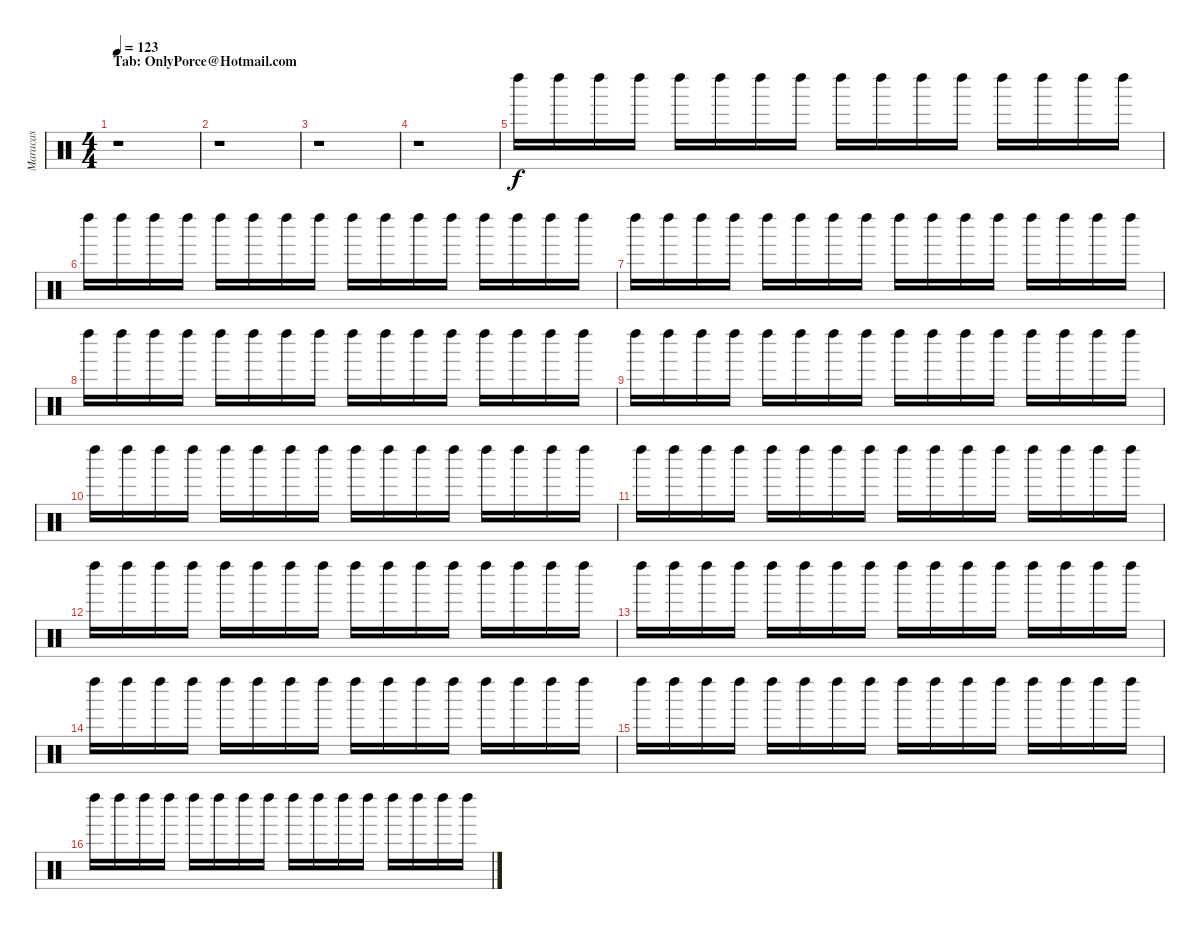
\track ("Maracas" "Maracas") {instrument percussion}
\staff {score}
\articulation defaults
\ts (4 4)
\section ("" "Tab: OnlyPorce@Hotmail.com")
\tempo 123
\clef neutral
\ks c
r.1{dy f} |
r.1 |
r.1 |
r.1 |
"Left Maraca (hit)".16 "Left Maraca (hit)".16 "Left Maraca (hit)".16 "Left Maraca (hit)".16 "Left Maraca (hit)".16 "Left Maraca (hit)".16 "Left Maraca (hit)".16 "Left Maraca (hit)".16 "Left Maraca (hit)".16 "Left Maraca (hit)".16 "Left Maraca (hit)".16 "Left Maraca (hit)".16 "Left Maraca (hit)".16 "Left Maraca (hit)".16 "Left Maraca (hit)".16 "Left Maraca (hit)".16 |
"Left Maraca (hit)".16 "Left Maraca (hit)".16 "Left Maraca (hit)".16 "Left Maraca (hit)".16 "Left Maraca (hit)".16 "Left Maraca (hit)".16 "Left Maraca (hit)".16 "Left Maraca (hit)".16 "Left Maraca (hit)".16 "Left Maraca (hit)".16 "Left Maraca (hit)".16 "Left Maraca (hit)".16 "Left Maraca (hit)".16 "Left Maraca (hit)".16 "Left Maraca (hit)".16 "Left Maraca (hit)".16 |
"Left Maraca (hit)".16 "Left Maraca (hit)".16 "Left Maraca (hit)".16 "Left Maraca (hit)".16 "Left Maraca (hit)".16 "Left Maraca (hit)".16 "Left Maraca (hit)".16 "Left Maraca (hit)".16 "Left Maraca (hit)".16 "Left Maraca (hit)".16 "Left Maraca (hit)".16 "Left Maraca (hit)".16 "Left Maraca (hit)".16 "Left Maraca (hit)".16 "Left Maraca (hit)".16 "Left Maraca (hit)".16 |
"Left Maraca (hit)".16 "Left Maraca (hit)".16 "Left Maraca (hit)".16 "Left Maraca (hit)".16 "Left Maraca (hit)".16 "Left Maraca (hit)".16 "Left Maraca (hit)".16 "Left Maraca (hit)".16 "Left Maraca (hit)".16 "Left Maraca (hit)".16 "Left Maraca (hit)".16 "Left Maraca (hit)".16 "Left Maraca (hit)".16 "Left Maraca (hit)".16 "Left Maraca (hit)".16 "Left Maraca (hit)".16 |
"Left Maraca (hit)".16 "Left Maraca (hit)".16 "Left Maraca (hit)".16 "Left Maraca (hit)".16 "Left Maraca (hit)".16 "Left Maraca (hit)".16 "Left Maraca (hit)".16 "Left Maraca (hit)".16 "Left Maraca (hit)".16 "Left Maraca (hit)".16 "Left Maraca (hit)".16 "Left Maraca (hit)".16 "Left Maraca (hit)".16 "Left Maraca (hit)".16 "Left Maraca (hit)".16 "Left Maraca (hit)".16 |
"Left Maraca (hit)".16 "Left Maraca (hit)".16 "Left Maraca (hit)".16 "Left Maraca (hit)".16 "Left Maraca (hit)".16 "Left Maraca (hit)".16 "Left Maraca (hit)".16 "Left Maraca (hit)".16 "Left Maraca (hit)".16 "Left Maraca (hit)".16 "Left Maraca (hit)".16 "Left Maraca (hit)".16 "Left Maraca (hit)".16 "Left Maraca (hit)".16 "Left Maraca (hit)".16 "Left Maraca (hit)".16 |
"Left Maraca (hit)".16 "Left Maraca (hit)".16 "Left Maraca (hit)".16 "Left Maraca (hit)".16 "Left Maraca (hit)".16 "Left Maraca (hit)".16 "Left Maraca (hit)".16 "Left Maraca (hit)".16 "Left Maraca (hit)".16 "Left Maraca (hit)".16 "Left Maraca (hit)".16 "Left Maraca (hit)".16 "Left Maraca (hit)".16 "Left Maraca (hit)".16 "Left Maraca (hit)".16 "Left Maraca (hit)".16 |
"Left Maraca (hit)".16 "Left Maraca (hit)".16 "Left Maraca (hit)".16 "Left Maraca (hit)".16 "Left Maraca (hit)".16 "Left Maraca (hit)".16 "Left Maraca (hit)".16 "Left Maraca (hit)".16 "Left Maraca (hit)".16 "Left Maraca (hit)".16 "Left Maraca (hit)".16 "Left Maraca (hit)".16 "Left Maraca (hit)".16 "Left Maraca (hit)".16 "Left Maraca (hit)".16 "Left Maraca (hit)".16 |
"Left Maraca (hit)".16 "Left Maraca (hit)".16 "Left Maraca (hit)".16 "Left Maraca (hit)".16 "Left Maraca (hit)".16 "Left Maraca (hit)".16 "Left Maraca (hit)".16 "Left Maraca (hit)".16 "Left Maraca (hit)".16 "Left Maraca (hit)".16 "Left Maraca (hit)".16 "Left Maraca (hit)".16 "Left Maraca (hit)".16 "Left Maraca (hit)".16 "Left Maraca (hit)".16 "Left Maraca (hit)".16 |
"Left Maraca (hit)".16 "Left Maraca (hit)".16 "Left Maraca (hit)".16 "Left Maraca (hit)".16 "Left Maraca (hit)".16 "Left Maraca (hit)".16 "Left Maraca (hit)".16 "Left Maraca (hit)".16 "Left Maraca (hit)".16 "Left Maraca (hit)".16 "Left Maraca (hit)".16 "Left Maraca (hit)".16 "Left Maraca (hit)".16 "Left Maraca (hit)".16 "Left Maraca (hit)".16 "Left Maraca (hit)".16 |
"Left Maraca (hit)".16 "Left Maraca (hit)".16 "Left Maraca (hit)".16 "Left Maraca (hit)".16 "Left Maraca (hit)".16 "Left Maraca (hit)".16 "Left Maraca (hit)".16 "Left Maraca (hit)".16 "Left Maraca (hit)".16 "Left Maraca (hit)".16 "Left Maraca (hit)".16 "Left Maraca (hit)".16 "Left Maraca (hit)".16 "Left Maraca (hit)".16 "Left Maraca (hit)".16 "Left Maraca (hit)".16 |
"Left Maraca (hit)".16 "Left Maraca (hit)".16 "Left Maraca (hit)".16 "Left Maraca (hit)".16 "Left Maraca (hit)".16 "Left Maraca (hit)".16 "Left Maraca (hit)".16 "Left Maraca (hit)".16 "Left Maraca (hit)".16 "Left Maraca (hit)".16 "Left Maraca (hit)".16 "Left Maraca (hit)".16 "Left Maraca (hit)".16 "Left Maraca (hit)".16 "Left Maraca (hit)".16 "Left Maraca (hit)".16
